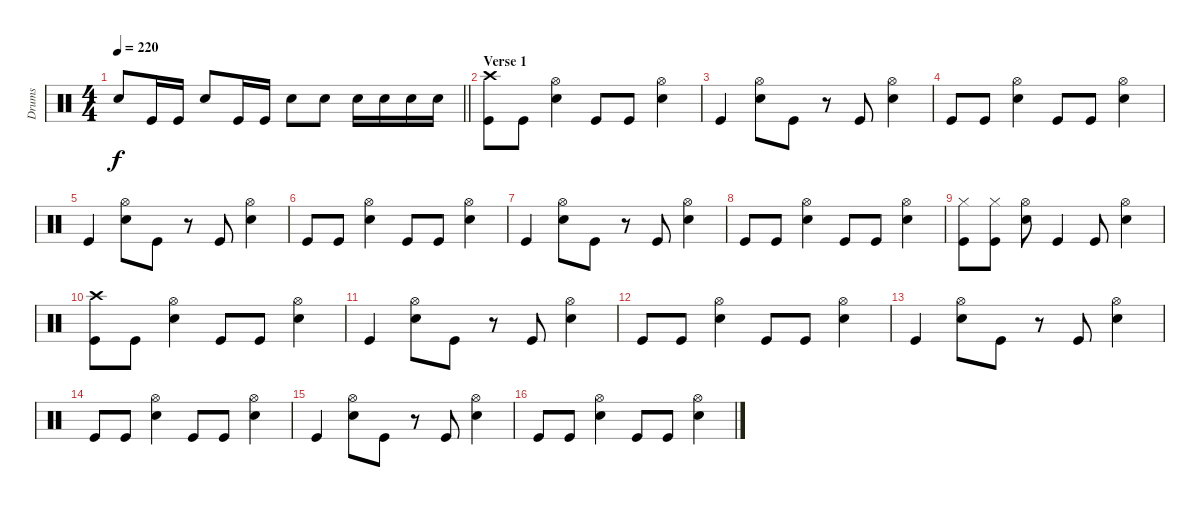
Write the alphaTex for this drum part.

\track ("Drums" "Drums") {instrument percussion}
\staff {score}
\articulation defaults
\ts (4 4)
\tempo 220
\clef neutral
\barLineRight lightlight
\ks c "Snare (hit) 2".8{dy f} "Kick (hit)".16 "Kick (hit)".16 "Snare (hit) 2".8 "Kick (hit)".16 "Kick (hit)".16 "Snare (hit) 2".8 "Snare (hit) 2".8 "Snare (hit) 2".16 "Snare (hit) 2".16 "Snare (hit) 2".16 "Snare (hit) 2".16
|
\section ("" "Verse 1")
("Crash high (hit)" "Kick (hit)").8 "Kick (hit)".8 ("Hi-Hat (open)" "Snare (hit) 2").4 "Kick (hit)".8 "Kick (hit)".8 ("Hi-Hat (open)" "Snare (hit) 2").4 |
"Kick (hit)".4 ("Hi-Hat (open)" "Snare (hit) 2").8 "Kick (hit)".8 r.8 "Kick (hit)".8 ("Hi-Hat (open)" "Snare (hit) 2").4 |
"Kick (hit)".8 "Kick (hit)".8 ("Hi-Hat (open)" "Snare (hit) 2").4 "Kick (hit)".8 "Kick (hit)".8 ("Hi-Hat (open)" "Snare (hit) 2").4 |
"Kick (hit)".4 ("Hi-Hat (open)" "Snare (hit) 2").8 "Kick (hit)".8 r.8 "Kick (hit)".8 ("Hi-Hat (open)" "Snare (hit) 2").4 |
"Kick (hit)".8 "Kick (hit)".8 ("Hi-Hat (open)" "Snare (hit) 2").4 "Kick (hit)".8 "Kick (hit)".8 ("Hi-Hat (open)" "Snare (hit) 2").4 |
"Kick (hit)".4 ("Hi-Hat (open)" "Snare (hit) 2").8 "Kick (hit)".8 r.8 "Kick (hit)".8 ("Hi-Hat (open)" "Snare (hit) 2").4 |
"Kick (hit)".8 "Kick (hit)".8 ("Hi-Hat (open)" "Snare (hit) 2").4 "Kick (hit)".8 "Kick (hit)".8 ("Hi-Hat (open)" "Snare (hit) 2").4 |
("Hi-Hat (closed)" "Kick (hit)").8 ("Hi-Hat (closed)" "Kick (hit)").8 ("Hi-Hat (open)" "Snare (hit) 2").8 "Kick (hit)".4 "Kick (hit)".8 ("Hi-Hat (open)" "Snare (hit) 2").4 |
("Crash high (hit)" "Kick (hit)").8 "Kick (hit)".8 ("Hi-Hat (open)" "Snare (hit) 2").4 "Kick (hit)".8 "Kick (hit)".8 ("Hi-Hat (open)" "Snare (hit) 2").4 |
"Kick (hit)".4 ("Hi-Hat (open)" "Snare (hit) 2").8 "Kick (hit)".8 r.8 "Kick (hit)".8 ("Hi-Hat (open)" "Snare (hit) 2").4 |
"Kick (hit)".8 "Kick (hit)".8 ("Hi-Hat (open)" "Snare (hit) 2").4 "Kick (hit)".8 "Kick (hit)".8 ("Hi-Hat (open)" "Snare (hit) 2").4 |
"Kick (hit)".4 ("Hi-Hat (open)" "Snare (hit) 2").8 "Kick (hit)".8 r.8 "Kick (hit)".8 ("Hi-Hat (open)" "Snare (hit) 2").4 |
"Kick (hit)".8 "Kick (hit)".8 ("Hi-Hat (open)" "Snare (hit) 2").4 "Kick (hit)".8 "Kick (hit)".8 ("Hi-Hat (open)" "Snare (hit) 2").4 |
"Kick (hit)".4 ("Hi-Hat (open)" "Snare (hit) 2").8 "Kick (hit)".8 r.8 "Kick (hit)".8 ("Hi-Hat (open)" "Snare (hit) 2").4 |
"Kick (hit)".8 "Kick (hit)".8 ("Hi-Hat (open)" "Snare (hit) 2").4 "Kick (hit)".8 "Kick (hit)".8 ("Hi-Hat (open)" "Snare (hit) 2").4
